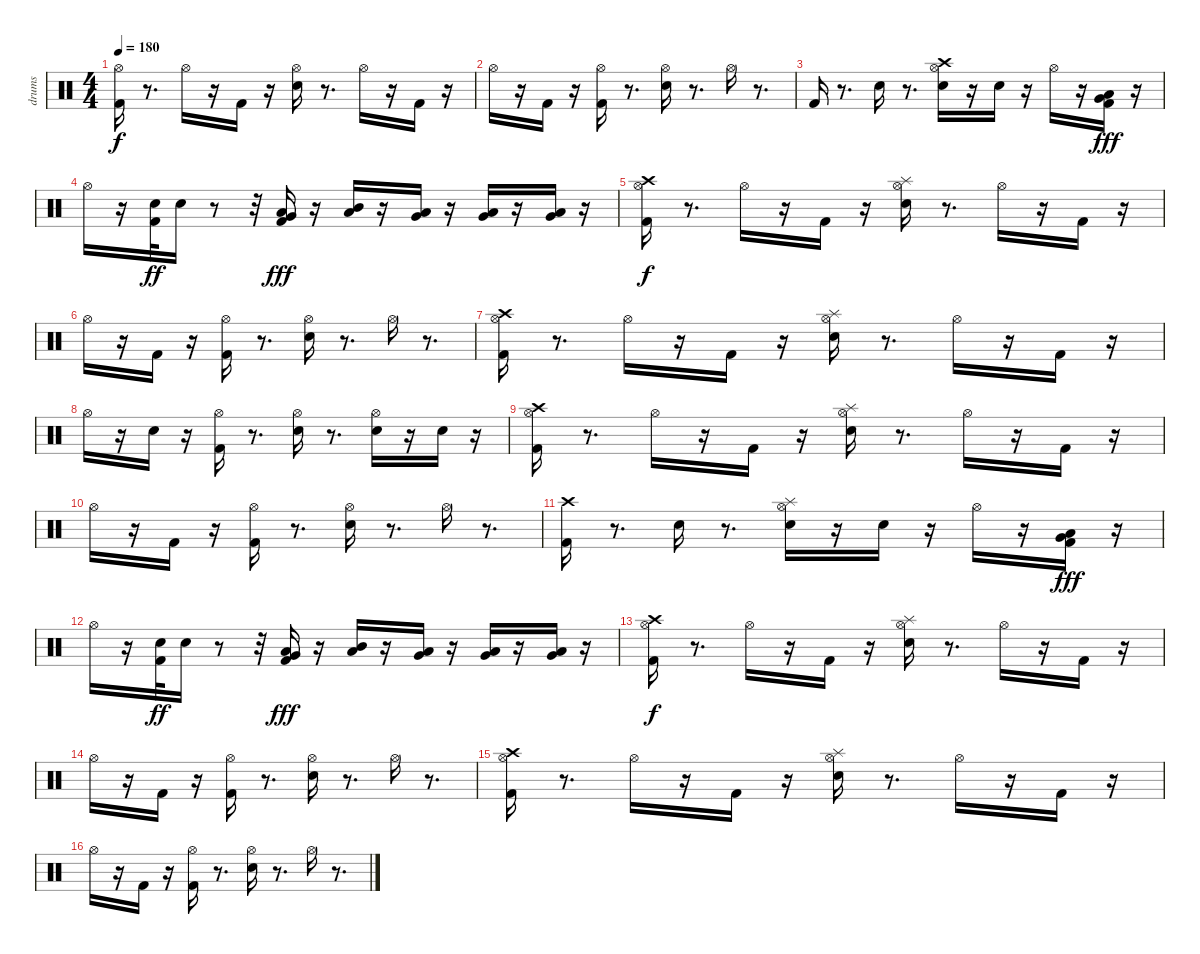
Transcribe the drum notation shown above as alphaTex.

\track ("drums" "drums") {instrument percussion}
\staff {score}
\articulation defaults
\ts (4 4)
\tempo 180
\clef neutral
\ks c
("Kick (hit) 2" "Hi-Hat (open)").16{dy f} r.8{d} "Hi-Hat (open)".16 r.16 "Kick (hit) 2".16 r.16 ("Electric Snare (hit)" "Hi-Hat (open)").16 r.8{d} "Hi-Hat (open)".16 r.16 "Kick (hit) 2".16 r.16 |
"Hi-Hat (open)".16 r.16 "Kick (hit) 2".16 r.16 ("Hi-Hat (open)" "Kick (hit) 2").16 r.8{d} ("Hi-Hat (open)" "Electric Snare (hit)").16 r.8{d} "Hi-Hat (open)".16 r.8{d} |
"Kick (hit) 2".16 r.8{d} "Electric Snare (hit)".16 r.8{d} ("Crash high (hit)" "Hi-Hat (open)" "Electric Snare (hit)").16 r.16 "Electric Snare (hit)".16 r.16 "Hi-Hat (open)".16 r.16 ("Very Low Tom (hit)" "Low Floor Tom (hit)" "Kick (hit) 2").16{dy fff} r.16 |
"Hi-Hat (open)".16 r.16 ("Electric Snare (hit)" "Kick (hit) 2").32{dy ff} "Electric Snare (hit)".16 r.8 r.32 ("Low Tom (hit)" "Very Low Tom (hit)" "Kick (hit) 2").16{dy fff} r.16 ("Mid Tom (hit)" "Low Tom (hit)").16 r.16 ("Low Tom (hit)" "Very Low Tom (hit)").16 r.16 ("Low Tom (hit)" "Very Low Tom (hit)").16 r.16 ("Very Low Tom (hit)" "Low Floor Tom (hit)").16 r.16 |
("Crash high (hit)" "Kick (hit) 2" "Hi-Hat (open)").16{dy f} r.8{d} "Hi-Hat (open)".16 r.16 "Kick (hit) 2".16 r.16 ("Electric Snare (hit)" "Hi-Hat (open)" "Splash (hit)").16 r.8{d} "Hi-Hat (open)".16 r.16 "Kick (hit) 2".16 r.16 |
"Hi-Hat (open)".16 r.16 "Kick (hit) 2".16 r.16 ("Hi-Hat (open)" "Kick (hit) 2").16 r.8{d} ("Hi-Hat (open)" "Electric Snare (hit)").16 r.8{d} "Hi-Hat (open)".16 r.8{d} |
("Crash high (hit)" "Kick (hit) 2" "Hi-Hat (open)").16 r.8{d} "Hi-Hat (open)".16 r.16 "Kick (hit) 2".16 r.16 ("Splash (hit)" "Electric Snare (hit)" "Hi-Hat (open)").16 r.8{d} "Hi-Hat (open)".16 r.16 "Kick (hit) 2".16 r.16 |
"Hi-Hat (open)".16 r.16 "Electric Snare (hit)".16 r.16 ("Hi-Hat (open)" "Kick (hit) 2").16 r.8{d} ("Hi-Hat (open)" "Electric Snare (hit)").16 r.8{d} ("Hi-Hat (open)" "Electric Snare (hit)").16 r.16 "Electric Snare (hit)".16 r.16 |
("Crash high (hit)" "Kick (hit) 2" "Hi-Hat (open)").16 r.8{d} "Hi-Hat (open)".16 r.16 "Kick (hit) 2".16 r.16 ("Splash (hit)" "Electric Snare (hit)" "Hi-Hat (open)").16 r.8{d} "Hi-Hat (open)".16 r.16 "Kick (hit) 2".16 r.16 |
"Hi-Hat (open)".16 r.16 "Kick (hit) 2".16 r.16 ("Hi-Hat (open)" "Kick (hit) 2").16 r.8{d} ("Hi-Hat (open)" "Electric Snare (hit)").16 r.8{d} "Hi-Hat (open)".16 r.8{d} |
("Crash high (hit)" "Kick (hit) 2").16 r.8{d} "Electric Snare (hit)".16 r.8{d} ("Splash (hit)" "Hi-Hat (open)" "Electric Snare (hit)").16 r.16 "Electric Snare (hit)".16 r.16 "Hi-Hat (open)".16 r.16 ("Very Low Tom (hit)" "Low Floor Tom (hit)" "Kick (hit) 2").16{dy fff} r.16 |
"Hi-Hat (open)".16 r.16 ("Electric Snare (hit)" "Kick (hit) 2").32{dy ff} "Electric Snare (hit)".16 r.8 r.32 ("Low Tom (hit)" "Very Low Tom (hit)" "Kick (hit) 2").16{dy fff} r.16 ("Low Tom (hit)" "Mid Tom (hit)").16 r.16 ("Very Low Tom (hit)" "Low Tom (hit)").16 r.16 ("Low Tom (hit)" "Very Low Tom (hit)").16 r.16 ("Very Low Tom (hit)" "Low Floor Tom (hit)").16 r.16 |
("Crash high (hit)" "Kick (hit) 2" "Hi-Hat (open)").16{dy f} r.8{d} "Hi-Hat (open)".16 r.16 "Kick (hit) 2".16 r.16 ("Splash (hit)" "Electric Snare (hit)" "Hi-Hat (open)").16 r.8{d} "Hi-Hat (open)".16 r.16 "Kick (hit) 2".16 r.16 |
"Hi-Hat (open)".16 r.16 "Kick (hit) 2".16 r.16 ("Hi-Hat (open)" "Kick (hit) 2").16 r.8{d} ("Hi-Hat (open)" "Electric Snare (hit)").16 r.8{d} "Hi-Hat (open)".16 r.8{d} |
("Crash high (hit)" "Kick (hit) 2" "Hi-Hat (open)").16 r.8{d} "Hi-Hat (open)".16 r.16 "Kick (hit) 2".16 r.16 ("Splash (hit)" "Electric Snare (hit)" "Hi-Hat (open)").16 r.8{d} "Hi-Hat (open)".16 r.16 "Kick (hit) 2".16 r.16 |
"Hi-Hat (open)".16 r.16 "Kick (hit) 2".16 r.16 ("Hi-Hat (open)" "Kick (hit) 2").16 r.8{d} ("Hi-Hat (open)" "Electric Snare (hit)").16 r.8{d} "Hi-Hat (open)".16 r.8{d}
